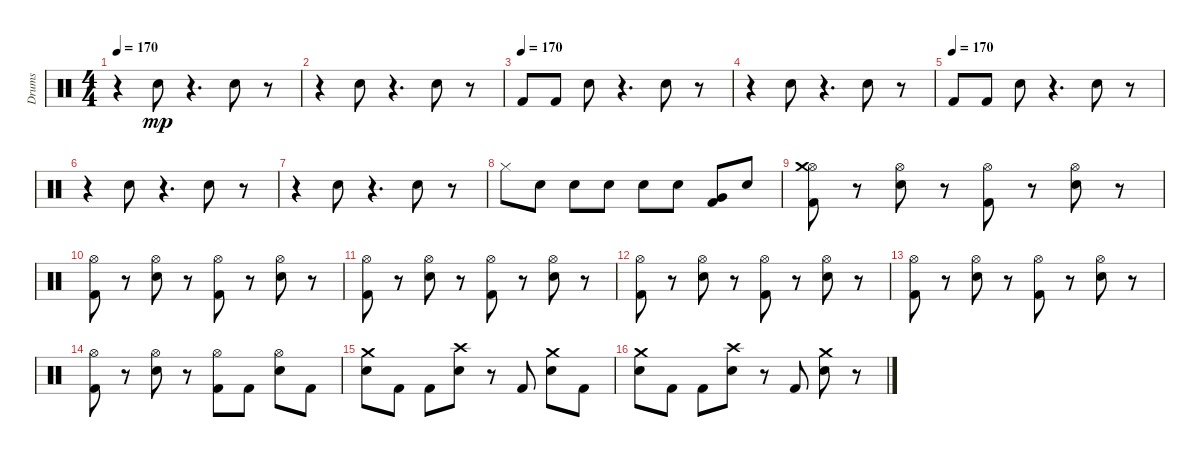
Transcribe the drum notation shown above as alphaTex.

\track ("Drums" "Drums") {instrument percussion}
\staff {score}
\articulation defaults
\ts (4 4)
\tempo 170
\clef neutral
\ks c
r.4{dy mp} "Electric Snare (hit)".8 r.4{d} "Electric Snare (hit)".8 r.8 |
r.4 "Electric Snare (hit)".8 r.4{d} "Electric Snare (hit)".8 r.8 |
\tempo (170)
"Kick (hit) 2".8 "Kick (hit) 2".8 "Electric Snare (hit)".8 r.4{d} "Electric Snare (hit)".8 r.8 |
r.4 "Electric Snare (hit)".8 r.4{d} "Electric Snare (hit)".8 r.8 |
\tempo (170)
"Kick (hit) 2".8 "Kick (hit) 2".8 "Electric Snare (hit)".8 r.4{d} "Electric Snare (hit)".8 r.8 |
r.4 "Electric Snare (hit)".8 r.4{d} "Electric Snare (hit)".8 r.8 |
r.4 "Electric Snare (hit)".8 r.4{d} "Electric Snare (hit)".8 r.8 |
"Hi-Hat (closed)".8 "Electric Snare (hit)".8 "Electric Snare (hit)".8 "Electric Snare (hit)".8 "Electric Snare (hit)".8 "Electric Snare (hit)".8 ("Kick (hit) 2" "Very Low Tom (hit)").8 "Electric Snare (hit)".8 |
("Kick (hit) 2" "Hi-Hat (open)" "Crash medium (hit)").8 r.8 ("Hi-Hat (open)" "Electric Snare (hit)").8 r.8 ("Hi-Hat (open)" "Kick (hit) 2").8 r.8 ("Electric Snare (hit)" "Hi-Hat (open)").8 r.8 |
("Kick (hit) 2" "Hi-Hat (open)").8 r.8 ("Electric Snare (hit)" "Hi-Hat (open)").8 r.8 ("Hi-Hat (open)" "Kick (hit) 2").8 r.8 ("Electric Snare (hit)" "Hi-Hat (open)").8 r.8 |
("Hi-Hat (open)" "Kick (hit) 2").8 r.8 ("Hi-Hat (open)" "Electric Snare (hit)").8 r.8 ("Kick (hit) 2" "Hi-Hat (open)").8 r.8 ("Hi-Hat (open)" "Electric Snare (hit)").8 r.8 |
("Kick (hit) 2" "Hi-Hat (open)").8 r.8 ("Hi-Hat (open)" "Electric Snare (hit)").8 r.8 ("Kick (hit) 2" "Hi-Hat (open)").8 r.8 ("Electric Snare (hit)" "Hi-Hat (open)").8 r.8 |
("Kick (hit) 2" "Hi-Hat (open)").8 r.8 ("Electric Snare (hit)" "Hi-Hat (open)").8 r.8 ("Hi-Hat (open)" "Kick (hit) 2").8 r.8 ("Electric Snare (hit)" "Hi-Hat (open)").8 r.8 |
("Hi-Hat (open)" "Kick (hit) 2").8 r.8 ("Hi-Hat (open)" "Electric Snare (hit)").8 r.8 ("Hi-Hat (open)" "Kick (hit) 2").8 "Kick (hit) 2".8 ("Hi-Hat (open)" "Electric Snare (hit)").8 "Kick (hit) 2".8 |
("Electric Snare (hit)" "Crash medium (hit)").8 "Kick (hit) 2".8 "Kick (hit) 2".8 ("Electric Snare (hit)" "Crash high (hit)").8 r.8 "Kick (hit) 2".8 ("Electric Snare (hit)" "Crash medium (hit)").8 "Kick (hit) 2".8 |
("Electric Snare (hit)" "Crash medium (hit)").8 "Kick (hit) 2".8 "Kick (hit) 2".8 ("Electric Snare (hit)" "Crash high (hit)").8 r.8 "Kick (hit) 2".8 ("Electric Snare (hit)" "Crash medium (hit)").8 r.8
